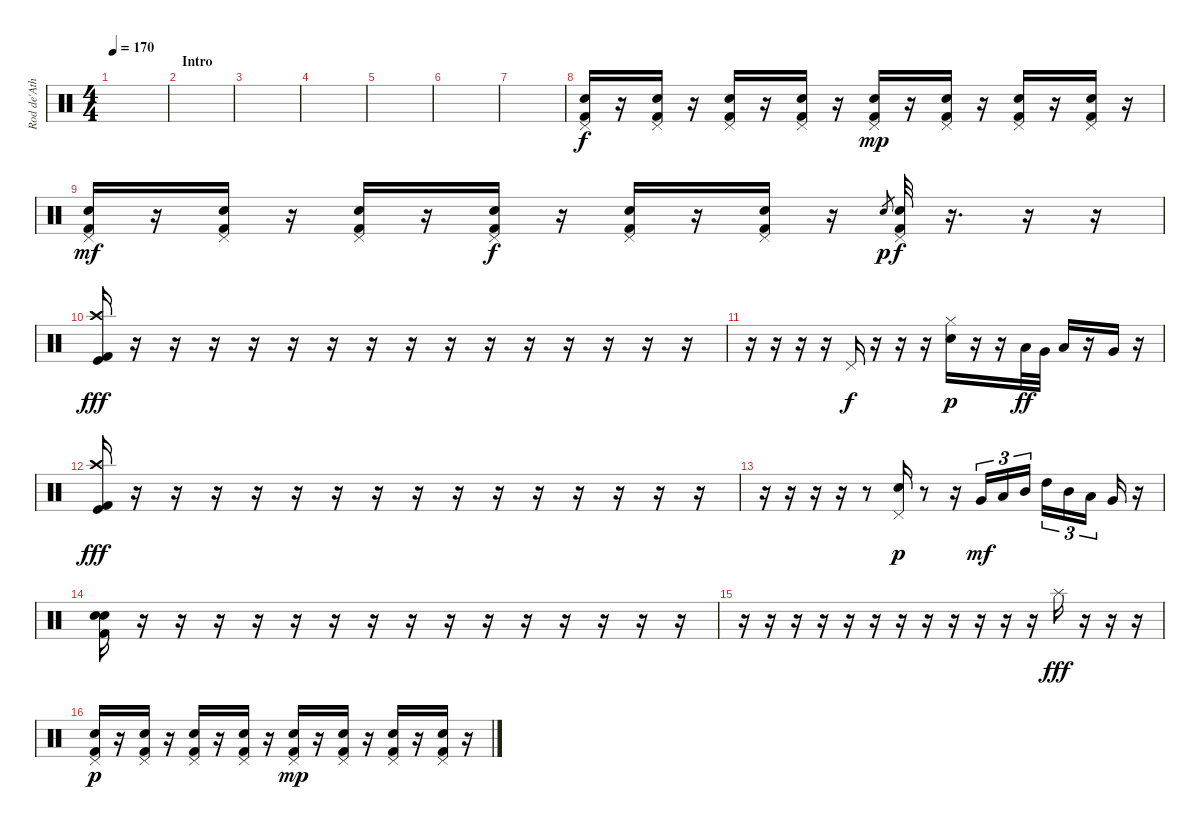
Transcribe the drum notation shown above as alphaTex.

\track ("Rod de'Ath" "Rod de'Ath") {instrument percussion}
\staff {score}
\articulation defaults
\ts (4 4)
\tempo 170
\clef neutral
\ks c
|
\section ("" "Intro")
|
|
|
|
|
|
("Pedal Hi-Hat (hit)" "Snare (hit) 2" "Kick (hit) 2").16 r.16 ("Pedal Hi-Hat (hit)" "Snare (hit) 2" "Kick (hit) 2").16 r.16 ("Pedal Hi-Hat (hit)" "Snare (hit) 2" "Kick (hit) 2").16 r.16 ("Pedal Hi-Hat (hit)" "Snare (hit) 2" "Kick (hit) 2").16 r.16 ("Pedal Hi-Hat (hit)" "Snare (hit) 2" "Kick (hit) 2").16{dy mp} r.16 ("Pedal Hi-Hat (hit)" "Snare (hit) 2" "Kick (hit) 2").16 r.16 ("Pedal Hi-Hat (hit)" "Snare (hit) 2" "Kick (hit) 2").16 r.16 ("Pedal Hi-Hat (hit)" "Snare (hit) 2" "Kick (hit) 2").16 r.16 |
("Pedal Hi-Hat (hit)" "Snare (hit) 2" "Kick (hit) 2").16{dy mf} r.16 ("Pedal Hi-Hat (hit)" "Snare (hit) 2" "Kick (hit) 2").16 r.16 ("Pedal Hi-Hat (hit)" "Snare (hit) 2" "Kick (hit) 2").16 r.16 ("Pedal Hi-Hat (hit)" "Snare (hit) 2" "Kick (hit) 2").16{dy f} r.16 ("Pedal Hi-Hat (hit)" "Snare (hit) 2" "Kick (hit) 2").16 r.16 ("Pedal Hi-Hat (hit)" "Snare (hit) 2" "Kick (hit) 2").16 r.16 "Snare (hit) 2".8{gr dy p} ("Pedal Hi-Hat (hit)" "Snare (hit) 2" "Kick (hit) 2").32{dy f} r.16{d} r.16 r.16 |
("Crash high (hit)" "Kick (hit)" "Kick (hit) 2").16{dy fff} r.16 r.16 r.16 r.16 r.16 r.16 r.16 r.16 r.16 r.16 r.16 r.16 r.16 r.16 r.16 |
r.16 r.16 r.16 r.16 "Pedal Hi-Hat (hit)".16{dy f} r.16 r.16 r.16 ("Hi-Hat (closed)" "Snare (hit) 2").16{dy p} r.16 r.16 "Low Tom (hit)".32{dy ff} "Very Low Tom (hit)".32 "Low Tom (hit)".16 r.16 "Very Low Tom (hit)".16 r.16 |
("Crash high (hit)" "Kick (hit)" "Kick (hit) 2").16{dy fff} r.16 r.16 r.16 r.16 r.16 r.16 r.16 r.16 r.16 r.16 r.16 r.16 r.16 r.16 r.16 |
r.16 r.16 r.16 r.16 r.8 ("Pedal Hi-Hat (hit)" "Snare (hit) 2").16{dy p} r.8 r.16 "Very Low Tom (hit)".16{tu (3 2) dy mf} "Low Tom (hit)".16{tu (3 2)} "Mid Tom (hit)".16{tu (3 2)} "High Tom (hit)".16{tu (3 2)} "Mid Tom (hit)".16{tu (3 2)} "Low Tom (hit)".16{tu (3 2)} "Very Low Tom (hit)".16 r.16 |
("Snare (hit) 2" "Electric Snare (hit)" "Kick (hit) 2").16 r.16 r.16 r.16 r.16 r.16 r.16 r.16 r.16 r.16 r.16 r.16 r.16 r.16 r.16 r.16 |
r.16 r.16 r.16 r.16 r.16 r.16 r.16 r.16 r.16 r.16 r.16 r.16 "Splash (hit)".16{dy fff} r.16 r.16 r.16 |
("Pedal Hi-Hat (hit)" "Snare (hit) 2" "Kick (hit) 2").16{dy p} r.16 ("Pedal Hi-Hat (hit)" "Snare (hit) 2" "Kick (hit) 2").16 r.16 ("Pedal Hi-Hat (hit)" "Snare (hit) 2" "Kick (hit) 2").16 r.16 ("Pedal Hi-Hat (hit)" "Snare (hit) 2" "Kick (hit) 2").16 r.16 ("Pedal Hi-Hat (hit)" "Snare (hit) 2" "Kick (hit) 2").16{dy mp} r.16 ("Pedal Hi-Hat (hit)" "Snare (hit) 2" "Kick (hit) 2").16 r.16 ("Pedal Hi-Hat (hit)" "Snare (hit) 2" "Kick (hit) 2").16 r.16 ("Pedal Hi-Hat (hit)" "Snare (hit) 2" "Kick (hit) 2").16 r.16
